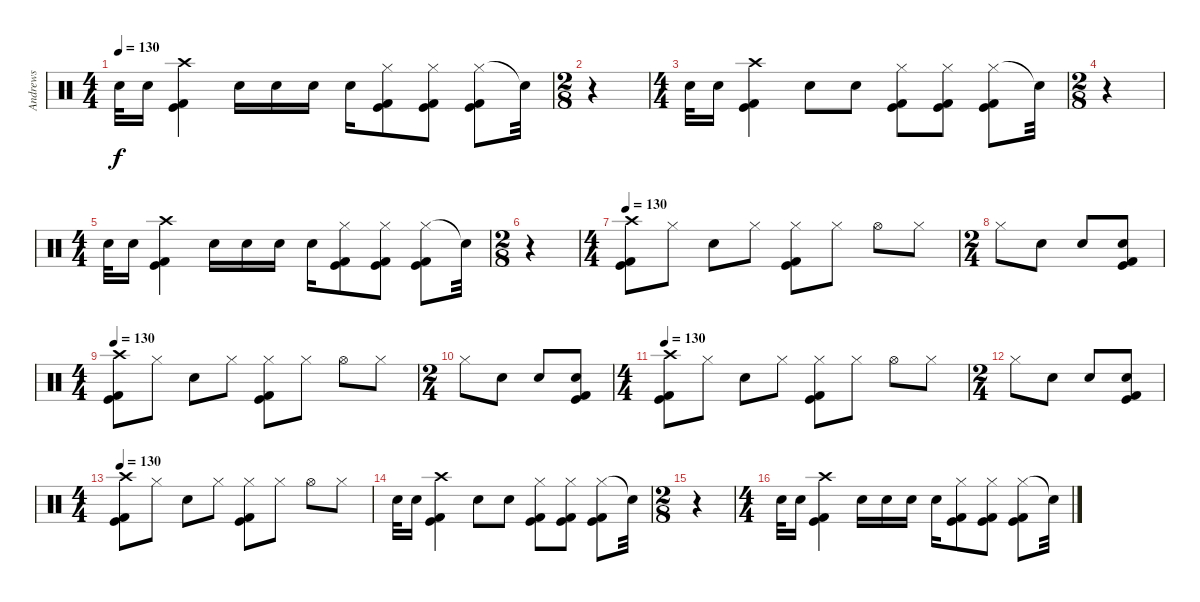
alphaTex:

\track ("Andrews" "Andrews") {instrument percussion}
\staff {score}
\articulation defaults
\ts (4 4)
\tempo 130
\clef neutral
\ks c "Electric Snare (hit)".32{dy f} "Electric Snare (hit)".16
("Crash high (hit)" "Kick (hit) 2" "Kick (hit)").4 "Electric Snare (hit)".16 "Electric Snare (hit)".16 "Electric Snare (hit)".16 "Electric Snare (hit)".16 ("Hi-Hat (closed)" "Kick (hit) 2" "Kick (hit)").8 ("Hi-Hat (closed)" "Kick (hit) 2" "Kick (hit)").8 ("Hi-Hat (closed)" "Kick (hit) 2" "Kick (hit)").8 "Snare (hit)"{t}.32 |
\ts (2 8)
r.4 |
\ts (4 4)
"Electric Snare (hit)".32 "Electric Snare (hit)".16 ("Crash high (hit)" "Kick (hit) 2" "Kick (hit)").4 "Electric Snare (hit)".8 "Electric Snare (hit)".8 ("Hi-Hat (closed)" "Kick (hit) 2" "Kick (hit)").8 ("Hi-Hat (closed)" "Kick (hit) 2" "Kick (hit)").8 ("Hi-Hat (closed)" "Kick (hit) 2" "Kick (hit)").8 "Snare (hit)"{t}.32 |
\ts (2 8)
r.4 |
\ts (4 4)
"Electric Snare (hit)".32 "Electric Snare (hit)".16 ("Crash high (hit)" "Kick (hit) 2" "Kick (hit)").4 "Electric Snare (hit)".16 "Electric Snare (hit)".16 "Electric Snare (hit)".16 "Electric Snare (hit)".16 ("Hi-Hat (closed)" "Kick (hit) 2" "Kick (hit)").8 ("Hi-Hat (closed)" "Kick (hit) 2" "Kick (hit)").8 ("Hi-Hat (closed)" "Kick (hit) 2" "Kick (hit)").8 "Snare (hit)"{t}.32 |
\ts (2 8)
r.4 |
\ts (4 4)
\tempo 130
("Crash high (hit)" "Kick (hit) 2" "Kick (hit)").8 "Hi-Hat (closed)".8 "Electric Snare (hit)".8 "Hi-Hat (closed)".8 ("Hi-Hat (closed)" "Kick (hit) 2" "Kick (hit)").8 "Hi-Hat (closed)".8 "Hi-Hat (open)".8 "Hi-Hat (closed)".8 |
\ts (2 4)
"Hi-Hat (closed)".8 "Electric Snare (hit)".8 "Electric Snare (hit)".8 ("Electric Snare (hit)" "Kick (hit) 2" "Kick (hit)").8 |
\ts (4 4)
\tempo 130
("Crash high (hit)" "Kick (hit) 2" "Kick (hit)").8 "Hi-Hat (closed)".8 "Electric Snare (hit)".8 "Hi-Hat (closed)".8 ("Hi-Hat (closed)" "Kick (hit) 2" "Kick (hit)").8 "Hi-Hat (closed)".8 "Hi-Hat (open)".8 "Hi-Hat (closed)".8 |
\ts (2 4)
"Hi-Hat (closed)".8 "Electric Snare (hit)".8 "Electric Snare (hit)".8 ("Electric Snare (hit)" "Kick (hit) 2" "Kick (hit)").8 |
\ts (4 4)
\tempo 130
("Crash high (hit)" "Kick (hit) 2" "Kick (hit)").8 "Hi-Hat (closed)".8 "Electric Snare (hit)".8 "Hi-Hat (closed)".8 ("Hi-Hat (closed)" "Kick (hit) 2" "Kick (hit)").8 "Hi-Hat (closed)".8 "Hi-Hat (open)".8 "Hi-Hat (closed)".8 |
\ts (2 4)
"Hi-Hat (closed)".8 "Electric Snare (hit)".8 "Electric Snare (hit)".8 ("Electric Snare (hit)" "Kick (hit) 2" "Kick (hit)").8 |
\ts (4 4)
\tempo 130
("Crash high (hit)" "Kick (hit) 2" "Kick (hit)").8 "Hi-Hat (closed)".8 "Electric Snare (hit)".8 "Hi-Hat (closed)".8 ("Hi-Hat (closed)" "Kick (hit) 2" "Kick (hit)").8 "Hi-Hat (closed)".8 "Hi-Hat (open)".8 "Hi-Hat (closed)".8 |
"Electric Snare (hit)".32 "Electric Snare (hit)".16 ("Crash high (hit)" "Kick (hit) 2" "Kick (hit)").4 "Electric Snare (hit)".8 "Electric Snare (hit)".8 ("Hi-Hat (closed)" "Kick (hit) 2" "Kick (hit)").8 ("Hi-Hat (closed)" "Kick (hit) 2" "Kick (hit)").8 ("Hi-Hat (closed)" "Kick (hit) 2" "Kick (hit)").8 "Snare (hit)"{t}.32 |
\ts (2 8)
r.4 |
\ts (4 4)
"Electric Snare (hit)".32 "Electric Snare (hit)".16 ("Crash high (hit)" "Kick (hit) 2" "Kick (hit)").4 "Electric Snare (hit)".16 "Electric Snare (hit)".16 "Electric Snare (hit)".16 "Electric Snare (hit)".16 ("Hi-Hat (closed)" "Kick (hit) 2" "Kick (hit)").8 ("Hi-Hat (closed)" "Kick (hit) 2" "Kick (hit)").8 ("Hi-Hat (closed)" "Kick (hit) 2" "Kick (hit)").8 "Snare (hit)"{t}.32
